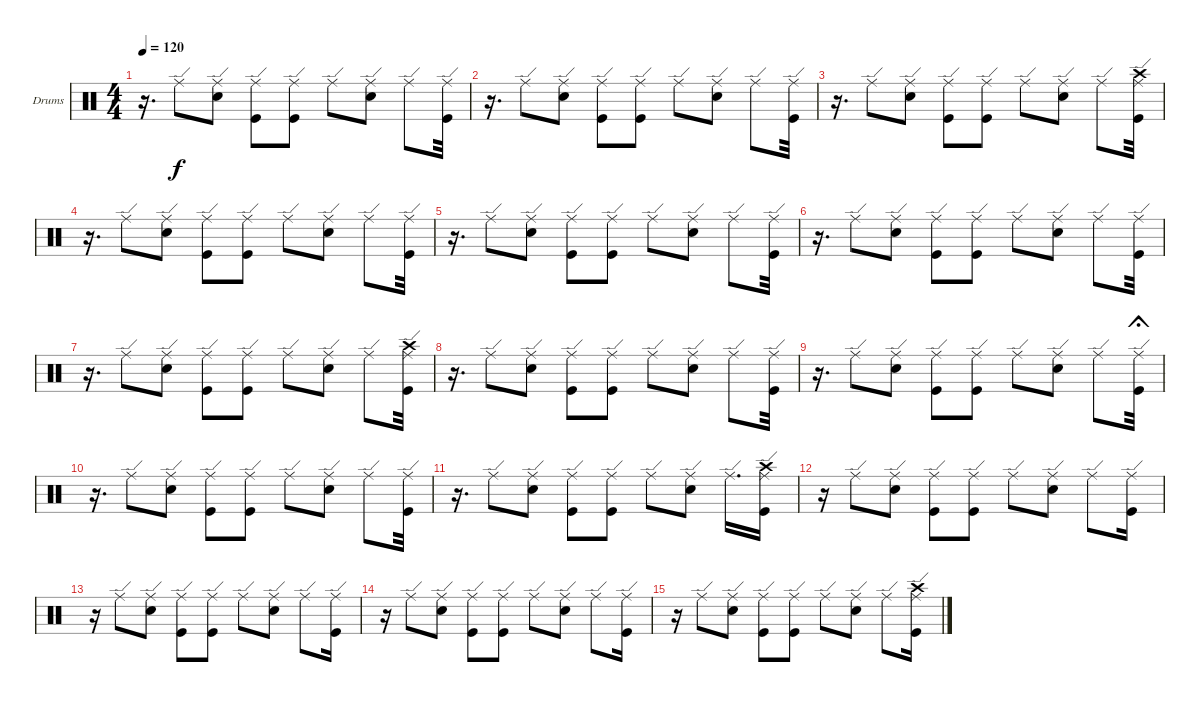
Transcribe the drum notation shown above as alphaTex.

\bracketExtendMode groupsimilarinstruments
\firstSystemTrackNameOrientation horizontal
\otherSystemsTrackNameOrientation horizontal
\track ("Drumkit" "Drums") {instrument percussion}
\staff {score}
\articulation defaults
\ts (4 4)
\tempo 120
\clef neutral
\ks c
r.16{d dy f} "Ride (edge)".8 ("Snare (hit) 2" "Ride (edge)").8 ("Kick (hit)" "Ride (edge)").8 ("Kick (hit)" "Ride (edge)").8 "Ride (edge)".8 ("Snare (hit) 2" "Ride (edge)").8 "Ride (edge)".8 ("Kick (hit)" "Ride (edge)").32 |
r.16{d} "Ride (edge)".8 ("Snare (hit) 2" "Ride (edge)").8 ("Kick (hit)" "Ride (edge)").8 ("Kick (hit)" "Ride (edge)").8 "Ride (edge)".8 ("Snare (hit) 2" "Ride (edge)").8 "Ride (edge)".8 ("Kick (hit)" "Ride (edge)").32 |
r.16{d} "Ride (edge)".8 ("Snare (hit) 2" "Ride (edge)").8 ("Kick (hit)" "Ride (edge)").8 ("Kick (hit)" "Ride (edge)").8 "Ride (edge)".8 ("Snare (hit) 2" "Ride (edge)").8 "Ride (edge)".8 ("Kick (hit)" "Ride (edge)" "Crash high (hit)").32 |
r.16{d} "Ride (edge)".8 ("Snare (hit) 2" "Ride (edge)").8 ("Kick (hit)" "Ride (edge)").8 ("Kick (hit)" "Ride (edge)").8 "Ride (edge)".8 ("Snare (hit) 2" "Ride (edge)").8 "Ride (edge)".8 ("Kick (hit)" "Ride (edge)").32 |
r.16{d} "Ride (edge)".8 ("Snare (hit) 2" "Ride (edge)").8 ("Kick (hit)" "Ride (edge)").8 ("Kick (hit)" "Ride (edge)").8 "Ride (edge)".8 ("Snare (hit) 2" "Ride (edge)").8 "Ride (edge)".8 ("Kick (hit)" "Ride (edge)").32 |
r.16{d} "Ride (edge)".8 ("Snare (hit) 2" "Ride (edge)").8 ("Kick (hit)" "Ride (edge)").8 ("Kick (hit)" "Ride (edge)").8 "Ride (edge)".8 ("Snare (hit) 2" "Ride (edge)").8 "Ride (edge)".8 ("Kick (hit)" "Ride (edge)").32 |
r.16{d} "Ride (edge)".8 ("Snare (hit) 2" "Ride (edge)").8 ("Kick (hit)" "Ride (edge)").8 ("Kick (hit)" "Ride (edge)").8 "Ride (edge)".8 ("Snare (hit) 2" "Ride (edge)").8 "Ride (edge)".8 ("Kick (hit)" "Ride (edge)" "Crash high (hit)").32 |
r.16{d} "Ride (edge)".8 ("Snare (hit) 2" "Ride (edge)").8 ("Kick (hit)" "Ride (edge)").8 ("Kick (hit)" "Ride (edge)").8 "Ride (edge)".8 ("Snare (hit) 2" "Ride (edge)").8 "Ride (edge)".8 ("Kick (hit)" "Ride (edge)").32 |
r.16{d} "Ride (edge)".8 ("Snare (hit) 2" "Ride (edge)").8 ("Kick (hit)" "Ride (edge)").8 ("Kick (hit)" "Ride (edge)").8 "Ride (edge)".8 ("Snare (hit) 2" "Ride (edge)").8 "Ride (edge)".8 ("Kick (hit)" "Ride (edge)").32{fermata (short 0)} |
r.16{d} "Ride (edge)".8 ("Snare (hit) 2" "Ride (edge)").8 ("Kick (hit)" "Ride (edge)").8 ("Kick (hit)" "Ride (edge)").8 "Ride (edge)".8 ("Snare (hit) 2" "Ride (edge)").8 "Ride (edge)".8 ("Kick (hit)" "Ride (edge)").32 |
r.16{d} "Ride (edge)".8 ("Snare (hit) 2" "Ride (edge)").8 ("Kick (hit)" "Ride (edge)").8 ("Kick (hit)" "Ride (edge)").8 "Ride (edge)".8 ("Snare (hit) 2" "Ride (edge)").8 "Ride (edge)".16{d} ("Kick (hit)" "Ride (edge)" "Crash high (hit)").16 |
r.16 "Ride (edge)".8 ("Snare (hit) 2" "Ride (edge)").8 ("Kick (hit)" "Ride (edge)").8 ("Kick (hit)" "Ride (edge)").8 "Ride (edge)".8 ("Snare (hit) 2" "Ride (edge)").8 "Ride (edge)".8 ("Kick (hit)" "Ride (edge)").16 |
r.16 "Ride (edge)".8 ("Snare (hit) 2" "Ride (edge)").8 ("Kick (hit)" "Ride (edge)").8 ("Kick (hit)" "Ride (edge)").8 "Ride (edge)".8 ("Snare (hit) 2" "Ride (edge)").8 "Ride (edge)".8 ("Kick (hit)" "Ride (edge)").16 |
r.16 "Ride (edge)".8 ("Snare (hit) 2" "Ride (edge)").8 ("Kick (hit)" "Ride (edge)").8 ("Kick (hit)" "Ride (edge)").8 "Ride (edge)".8 ("Snare (hit) 2" "Ride (edge)").8 "Ride (edge)".8 ("Kick (hit)" "Ride (edge)").16 |
r.16 "Ride (edge)".8 ("Snare (hit) 2" "Ride (edge)").8 ("Kick (hit)" "Ride (edge)").8 ("Kick (hit)" "Ride (edge)").8 "Ride (edge)".8 ("Snare (hit) 2" "Ride (edge)").8 "Ride (edge)".8 ("Kick (hit)" "Ride (edge)" "Crash high (hit)").16
